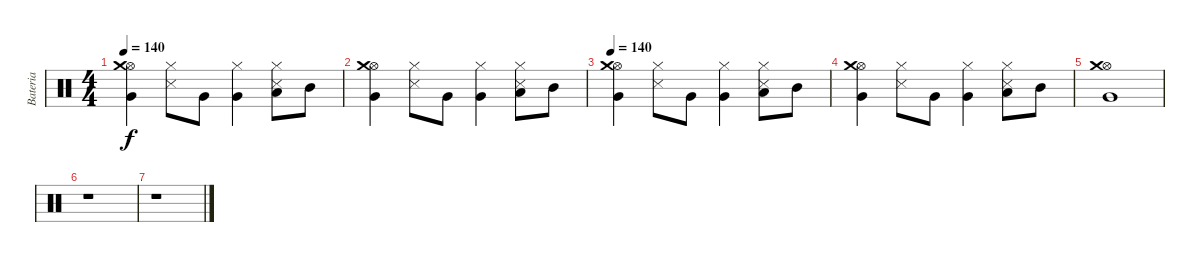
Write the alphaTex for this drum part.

\track ("Bateria" "Bateria") {instrument percussion}
\staff {score}
\articulation defaults
\ts (4 4)
\tempo 140
\clef neutral
\ks c
("Hi-Hat (open)" "Very Low Tom (hit)" "Crash medium (hit)").4{dy f} ("Hi-Hat (closed)" "Snare (side stick) 3").8 "Very Low Tom (hit)".8 ("Hi-Hat (closed)" "Very Low Tom (hit)").4 ("Hi-Hat (closed)" "Snare (side stick) 3" "Low Tom (hit)").8 "Mid Tom (hit)".8 |
("Hi-Hat (open)" "Very Low Tom (hit)" "Crash medium (hit)").4 ("Hi-Hat (closed)" "Snare (side stick) 3").8 "Very Low Tom (hit)".8 ("Hi-Hat (closed)" "Very Low Tom (hit)").4 ("Hi-Hat (closed)" "Snare (side stick) 3" "Low Tom (hit)").8 "Mid Tom (hit)".8 |
\tempo 140
("Hi-Hat (open)" "Very Low Tom (hit)" "Crash medium (hit)").4 ("Hi-Hat (closed)" "Snare (side stick) 3").8 "Very Low Tom (hit)".8 ("Hi-Hat (closed)" "Very Low Tom (hit)").4 ("Hi-Hat (closed)" "Snare (side stick) 3" "Low Tom (hit)").8 "Mid Tom (hit)".8 |
("Hi-Hat (open)" "Very Low Tom (hit)" "Crash medium (hit)").4 ("Hi-Hat (closed)" "Snare (side stick) 3").8 "Very Low Tom (hit)".8 ("Hi-Hat (closed)" "Very Low Tom (hit)").4 ("Hi-Hat (closed)" "Snare (side stick) 3" "Low Tom (hit)").8 "Mid Tom (hit)".8 |
("Hi-Hat (open)" "Very Low Tom (hit)" "Crash medium (hit)").1 |
r.1 |
r.1
